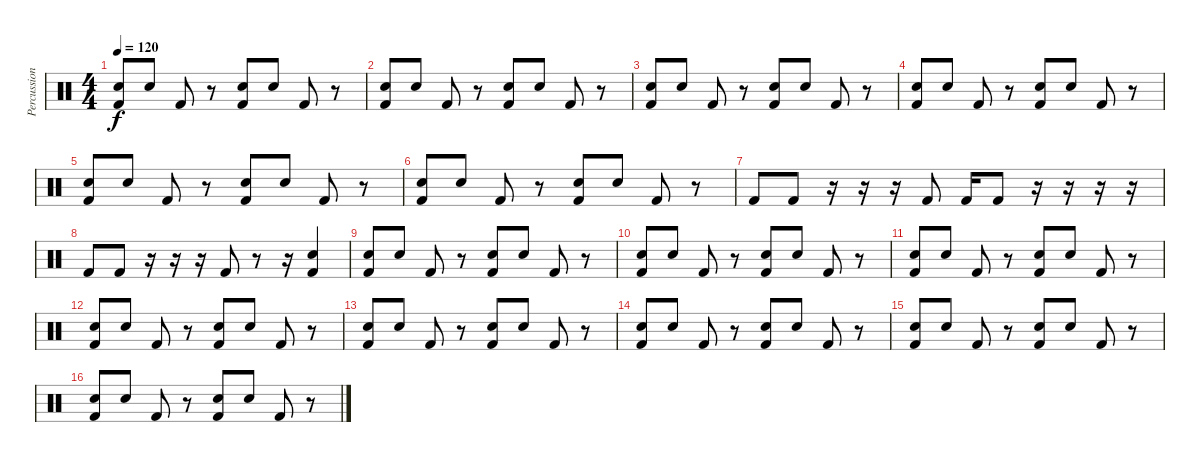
\track ("Percussion" "Percussion") {instrument percussion}
\staff {score}
\articulation defaults
\ts (4 4)
\tempo 120
\clef neutral
\ks c
("Electric Snare (hit)" "Kick (hit) 2").8{dy f} "Electric Snare (hit)".8 "Kick (hit) 2".8 r.8 ("Electric Snare (hit)" "Kick (hit) 2").8 "Electric Snare (hit)".8 "Kick (hit) 2".8 r.8 |
("Electric Snare (hit)" "Kick (hit) 2").8 "Electric Snare (hit)".8 "Kick (hit) 2".8 r.8 ("Electric Snare (hit)" "Kick (hit) 2").8 "Electric Snare (hit)".8 "Kick (hit) 2".8 r.8 |
("Electric Snare (hit)" "Kick (hit) 2").8 "Electric Snare (hit)".8 "Kick (hit) 2".8 r.8 ("Electric Snare (hit)" "Kick (hit) 2").8 "Electric Snare (hit)".8 "Kick (hit) 2".8 r.8 |
("Electric Snare (hit)" "Kick (hit) 2").8 "Electric Snare (hit)".8 "Kick (hit) 2".8 r.8 ("Electric Snare (hit)" "Kick (hit) 2").8 "Electric Snare (hit)".8 "Kick (hit) 2".8 r.8 |
("Electric Snare (hit)" "Kick (hit) 2").8 "Electric Snare (hit)".8 "Kick (hit) 2".8 r.8 ("Electric Snare (hit)" "Kick (hit) 2").8 "Electric Snare (hit)".8 "Kick (hit) 2".8 r.8 |
("Electric Snare (hit)" "Kick (hit) 2").8 "Electric Snare (hit)".8 "Kick (hit) 2".8 r.8 ("Electric Snare (hit)" "Kick (hit) 2").8 "Electric Snare (hit)".8 "Kick (hit) 2".8 r.8 |
"Kick (hit) 2".8 "Kick (hit) 2".8 r.16 r.16 r.16 "Kick (hit) 2".8 "Kick (hit) 2".16 "Kick (hit) 2".8 r.16 r.16 r.16 r.16 |
"Kick (hit) 2".8 "Kick (hit) 2".8 r.16 r.16 r.16 "Kick (hit) 2".8 r.8 r.16 ("Electric Snare (hit)" "Kick (hit) 2").4 |
("Electric Snare (hit)" "Kick (hit) 2").8 "Electric Snare (hit)".8 "Kick (hit) 2".8 r.8 ("Electric Snare (hit)" "Kick (hit) 2").8 "Electric Snare (hit)".8 "Kick (hit) 2".8 r.8 |
("Electric Snare (hit)" "Kick (hit) 2").8 "Electric Snare (hit)".8 "Kick (hit) 2".8 r.8 ("Electric Snare (hit)" "Kick (hit) 2").8 "Electric Snare (hit)".8 "Kick (hit) 2".8 r.8 |
("Electric Snare (hit)" "Kick (hit) 2").8 "Electric Snare (hit)".8 "Kick (hit) 2".8 r.8 ("Electric Snare (hit)" "Kick (hit) 2").8 "Electric Snare (hit)".8 "Kick (hit) 2".8 r.8 |
("Electric Snare (hit)" "Kick (hit) 2").8 "Electric Snare (hit)".8 "Kick (hit) 2".8 r.8 ("Electric Snare (hit)" "Kick (hit) 2").8 "Electric Snare (hit)".8 "Kick (hit) 2".8 r.8 |
("Electric Snare (hit)" "Kick (hit) 2").8 "Electric Snare (hit)".8 "Kick (hit) 2".8 r.8 ("Electric Snare (hit)" "Kick (hit) 2").8 "Electric Snare (hit)".8 "Kick (hit) 2".8 r.8 |
("Electric Snare (hit)" "Kick (hit) 2").8 "Electric Snare (hit)".8 "Kick (hit) 2".8 r.8 ("Electric Snare (hit)" "Kick (hit) 2").8 "Electric Snare (hit)".8 "Kick (hit) 2".8 r.8 |
("Electric Snare (hit)" "Kick (hit) 2").8 "Electric Snare (hit)".8 "Kick (hit) 2".8 r.8 ("Electric Snare (hit)" "Kick (hit) 2").8 "Electric Snare (hit)".8 "Kick (hit) 2".8 r.8 |
("Electric Snare (hit)" "Kick (hit) 2").8 "Electric Snare (hit)".8 "Kick (hit) 2".8 r.8 ("Electric Snare (hit)" "Kick (hit) 2").8 "Electric Snare (hit)".8 "Kick (hit) 2".8 r.8
